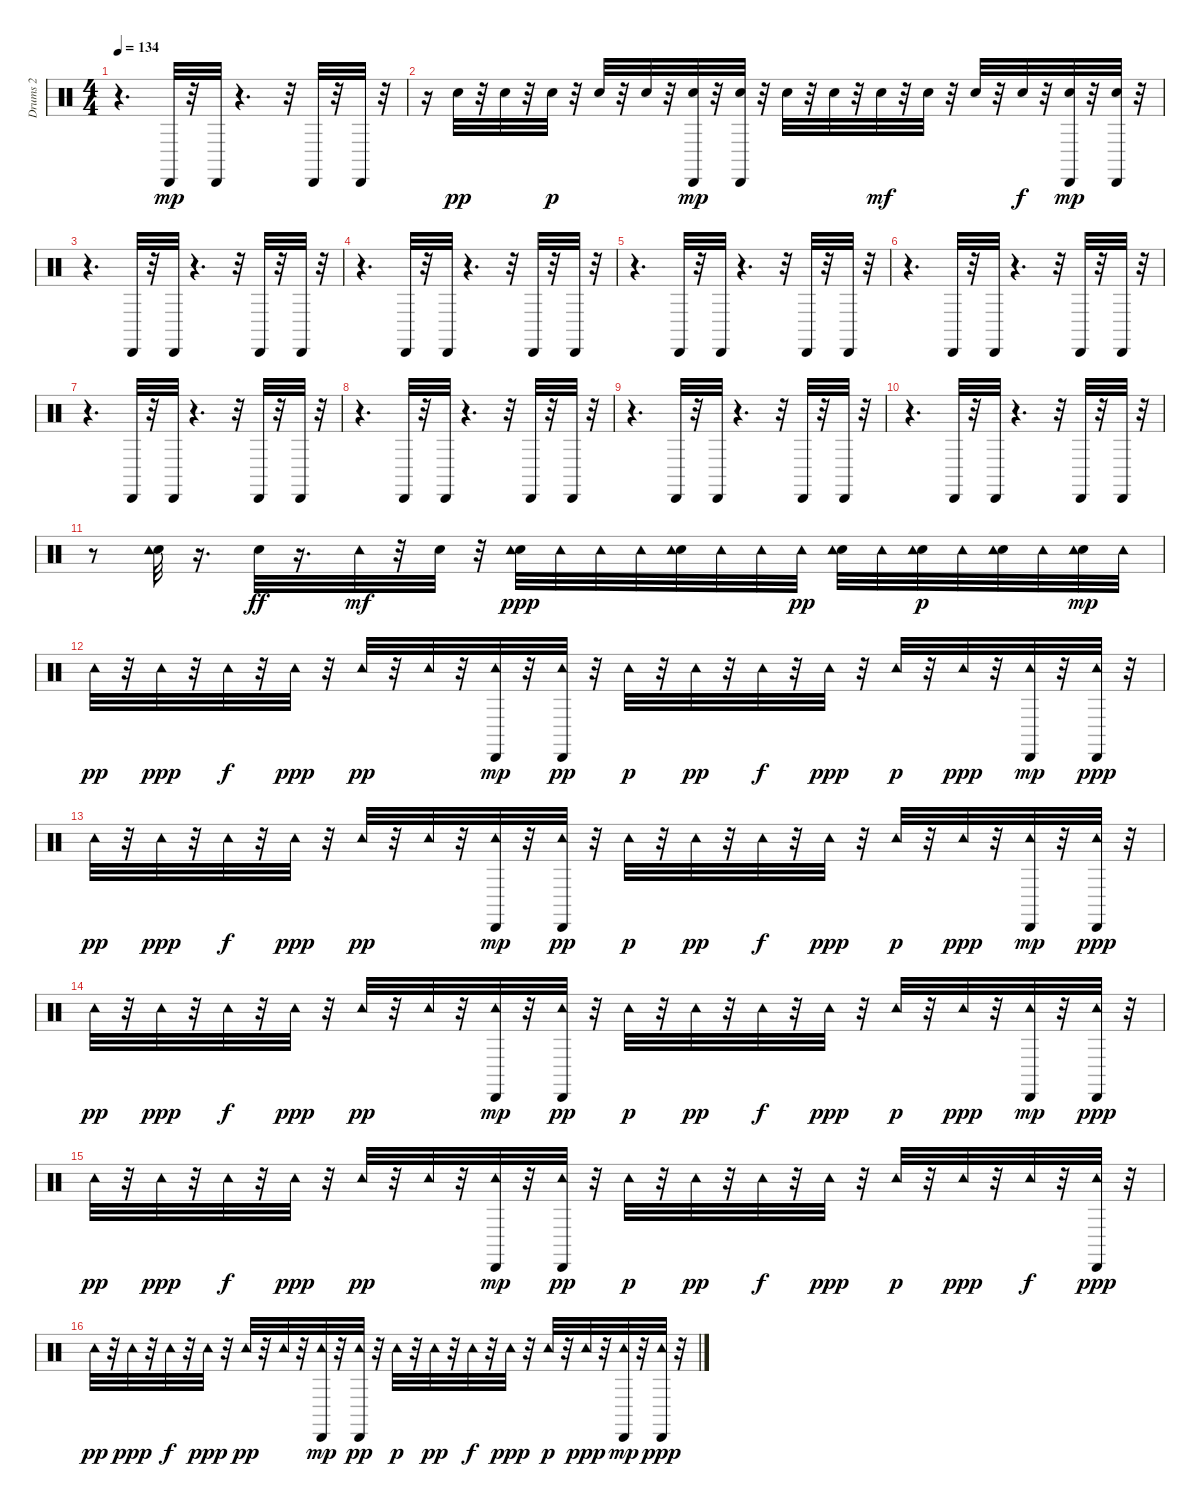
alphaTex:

\track ("Drums 2" "Drums 2") {instrument percussion}
\staff {score}
\articulation defaults
\ts (4 4)
\tempo 134
\clef neutral
\ks c
r.4{d dy mp} "Cabasa (hit)".32 r.32 "Cabasa (hit)".32 r.4{d} r.32 "Cabasa (hit)".32 r.32 "Cabasa (hit)".32 r.32 |
r.16 "Snare (hit) 2".32{dy pp} r.32 "Snare (hit) 2".32 r.32 "Snare (hit) 2".32{dy p} r.32 "Snare (hit) 2".32 r.32 "Snare (hit) 2".32 r.32 ("Snare (hit) 2" "Cabasa (hit)").32{dy mp} r.32 ("Snare (hit) 2" "Cabasa (hit)").32 r.32 "Snare (hit) 2".32 r.32 "Snare (hit) 2".32 r.32 "Snare (hit) 2".32{dy mf} r.32 "Snare (hit) 2".32 r.32 "Snare (hit) 2".32 r.32 "Snare (hit) 2".32{dy f} r.32 ("Snare (hit) 2" "Cabasa (hit)").32{dy mp} r.32 ("Snare (hit) 2" "Cabasa (hit)").32 r.32 |
r.4{d} "Cabasa (hit)".32 r.32 "Cabasa (hit)".32 r.4{d} r.32 "Cabasa (hit)".32 r.32 "Cabasa (hit)".32 r.32 |
r.4{d} "Cabasa (hit)".32 r.32 "Cabasa (hit)".32 r.4{d} r.32 "Cabasa (hit)".32 r.32 "Cabasa (hit)".32 r.32 |
r.4{d} "Cabasa (hit)".32 r.32 "Cabasa (hit)".32 r.4{d} r.32 "Cabasa (hit)".32 r.32 "Cabasa (hit)".32 r.32 |
r.4{d} "Cabasa (hit)".32 r.32 "Cabasa (hit)".32 r.4{d} r.32 "Cabasa (hit)".32 r.32 "Cabasa (hit)".32 r.32 |
r.4{d} "Cabasa (hit)".32 r.32 "Cabasa (hit)".32 r.4{d} r.32 "Cabasa (hit)".32 r.32 "Cabasa (hit)".32 r.32 |
r.4{d} "Cabasa (hit)".32 r.32 "Cabasa (hit)".32 r.4{d} r.32 "Cabasa (hit)".32 r.32 "Cabasa (hit)".32 r.32 |
r.4{d} "Cabasa (hit)".32 r.32 "Cabasa (hit)".32 r.4{d} r.32 "Cabasa (hit)".32 r.32 "Cabasa (hit)".32 r.32 |
r.4{d} "Cabasa (hit)".32 r.32 "Cabasa (hit)".32 r.4{d} r.32 "Cabasa (hit)".32 r.32 "Cabasa (hit)".32 r.32 |
r.8 ("Snare (hit) 2" "Tambourine (hit)").32 r.16{d} "Snare (hit) 2".32{dy ff} r.16{d} "Tambourine (hit)".32{dy mf} r.32 "Snare (hit) 2".32 r.32 ("Snare (hit) 2" "Tambourine (hit)").32{dy ppp} "Tambourine (hit)".32 "Tambourine (hit)".32 "Tambourine (hit)".32 ("Snare (hit) 2" "Tambourine (hit)").32 "Tambourine (hit)".32 "Tambourine (hit)".32 "Tambourine (hit)".32{dy pp} ("Snare (hit) 2" "Tambourine (hit)").32 "Tambourine (hit)".32 ("Snare (hit) 2" "Tambourine (hit)").32{dy p} "Tambourine (hit)".32 ("Snare (hit) 2" "Tambourine (hit)").32 "Tambourine (hit)".32 ("Snare (hit) 2" "Tambourine (hit)").32{dy mp} "Tambourine (hit)".32 |
"Tambourine (hit)".32{dy pp} r.32 "Tambourine (hit)".32{dy ppp} r.32 "Tambourine (hit)".32{dy f} r.32 "Tambourine (hit)".32{dy ppp} r.32 "Tambourine (hit)".32{dy pp} r.32 "Tambourine (hit)".32 r.32 ("Cabasa (hit)" "Tambourine (hit)").32{dy mp} r.32 ("Cabasa (hit)" "Tambourine (hit)").32{dy pp} r.32 "Tambourine (hit)".32{dy p} r.32 "Tambourine (hit)".32{dy pp} r.32 "Tambourine (hit)".32{dy f} r.32 "Tambourine (hit)".32{dy ppp} r.32 "Tambourine (hit)".32{dy p} r.32 "Tambourine (hit)".32{dy ppp} r.32 ("Cabasa (hit)" "Tambourine (hit)").32{dy mp} r.32 ("Cabasa (hit)" "Tambourine (hit)").32{dy ppp} r.32 |
"Tambourine (hit)".32{dy pp} r.32 "Tambourine (hit)".32{dy ppp} r.32 "Tambourine (hit)".32{dy f} r.32 "Tambourine (hit)".32{dy ppp} r.32 "Tambourine (hit)".32{dy pp} r.32 "Tambourine (hit)".32 r.32 ("Cabasa (hit)" "Tambourine (hit)").32{dy mp} r.32 ("Cabasa (hit)" "Tambourine (hit)").32{dy pp} r.32 "Tambourine (hit)".32{dy p} r.32 "Tambourine (hit)".32{dy pp} r.32 "Tambourine (hit)".32{dy f} r.32 "Tambourine (hit)".32{dy ppp} r.32 "Tambourine (hit)".32{dy p} r.32 "Tambourine (hit)".32{dy ppp} r.32 ("Cabasa (hit)" "Tambourine (hit)").32{dy mp} r.32 ("Cabasa (hit)" "Tambourine (hit)").32{dy ppp} r.32 |
"Tambourine (hit)".32{dy pp} r.32 "Tambourine (hit)".32{dy ppp} r.32 "Tambourine (hit)".32{dy f} r.32 "Tambourine (hit)".32{dy ppp} r.32 "Tambourine (hit)".32{dy pp} r.32 "Tambourine (hit)".32 r.32 ("Cabasa (hit)" "Tambourine (hit)").32{dy mp} r.32 ("Cabasa (hit)" "Tambourine (hit)").32{dy pp} r.32 "Tambourine (hit)".32{dy p} r.32 "Tambourine (hit)".32{dy pp} r.32 "Tambourine (hit)".32{dy f} r.32 "Tambourine (hit)".32{dy ppp} r.32 "Tambourine (hit)".32{dy p} r.32 "Tambourine (hit)".32{dy ppp} r.32 ("Cabasa (hit)" "Tambourine (hit)").32{dy mp} r.32 ("Cabasa (hit)" "Tambourine (hit)").32{dy ppp} r.32 |
"Tambourine (hit)".32{dy pp} r.32 "Tambourine (hit)".32{dy ppp} r.32 "Tambourine (hit)".32{dy f} r.32 "Tambourine (hit)".32{dy ppp} r.32 "Tambourine (hit)".32{dy pp} r.32 "Tambourine (hit)".32 r.32 ("Cabasa (hit)" "Tambourine (hit)").32{dy mp} r.32 ("Cabasa (hit)" "Tambourine (hit)").32{dy pp} r.32 "Tambourine (hit)".32{dy p} r.32 "Tambourine (hit)".32{dy pp} r.32 "Tambourine (hit)".32{dy f} r.32 "Tambourine (hit)".32{dy ppp} r.32 "Tambourine (hit)".32{dy p} r.32 "Tambourine (hit)".32{dy ppp} r.32 "Tambourine (hit)".32{dy f} r.32 ("Cabasa (hit)" "Tambourine (hit)").32{dy ppp} r.32 |
"Tambourine (hit)".32{dy pp} r.32 "Tambourine (hit)".32{dy ppp} r.32 "Tambourine (hit)".32{dy f} r.32 "Tambourine (hit)".32{dy ppp} r.32 "Tambourine (hit)".32{dy pp} r.32 "Tambourine (hit)".32 r.32 ("Cabasa (hit)" "Tambourine (hit)").32{dy mp} r.32 ("Cabasa (hit)" "Tambourine (hit)").32{dy pp} r.32 "Tambourine (hit)".32{dy p} r.32 "Tambourine (hit)".32{dy pp} r.32 "Tambourine (hit)".32{dy f} r.32 "Tambourine (hit)".32{dy ppp} r.32 "Tambourine (hit)".32{dy p} r.32 "Tambourine (hit)".32{dy ppp} r.32 ("Cabasa (hit)" "Tambourine (hit)").32{dy mp} r.32 ("Cabasa (hit)" "Tambourine (hit)").32{dy ppp} r.32
